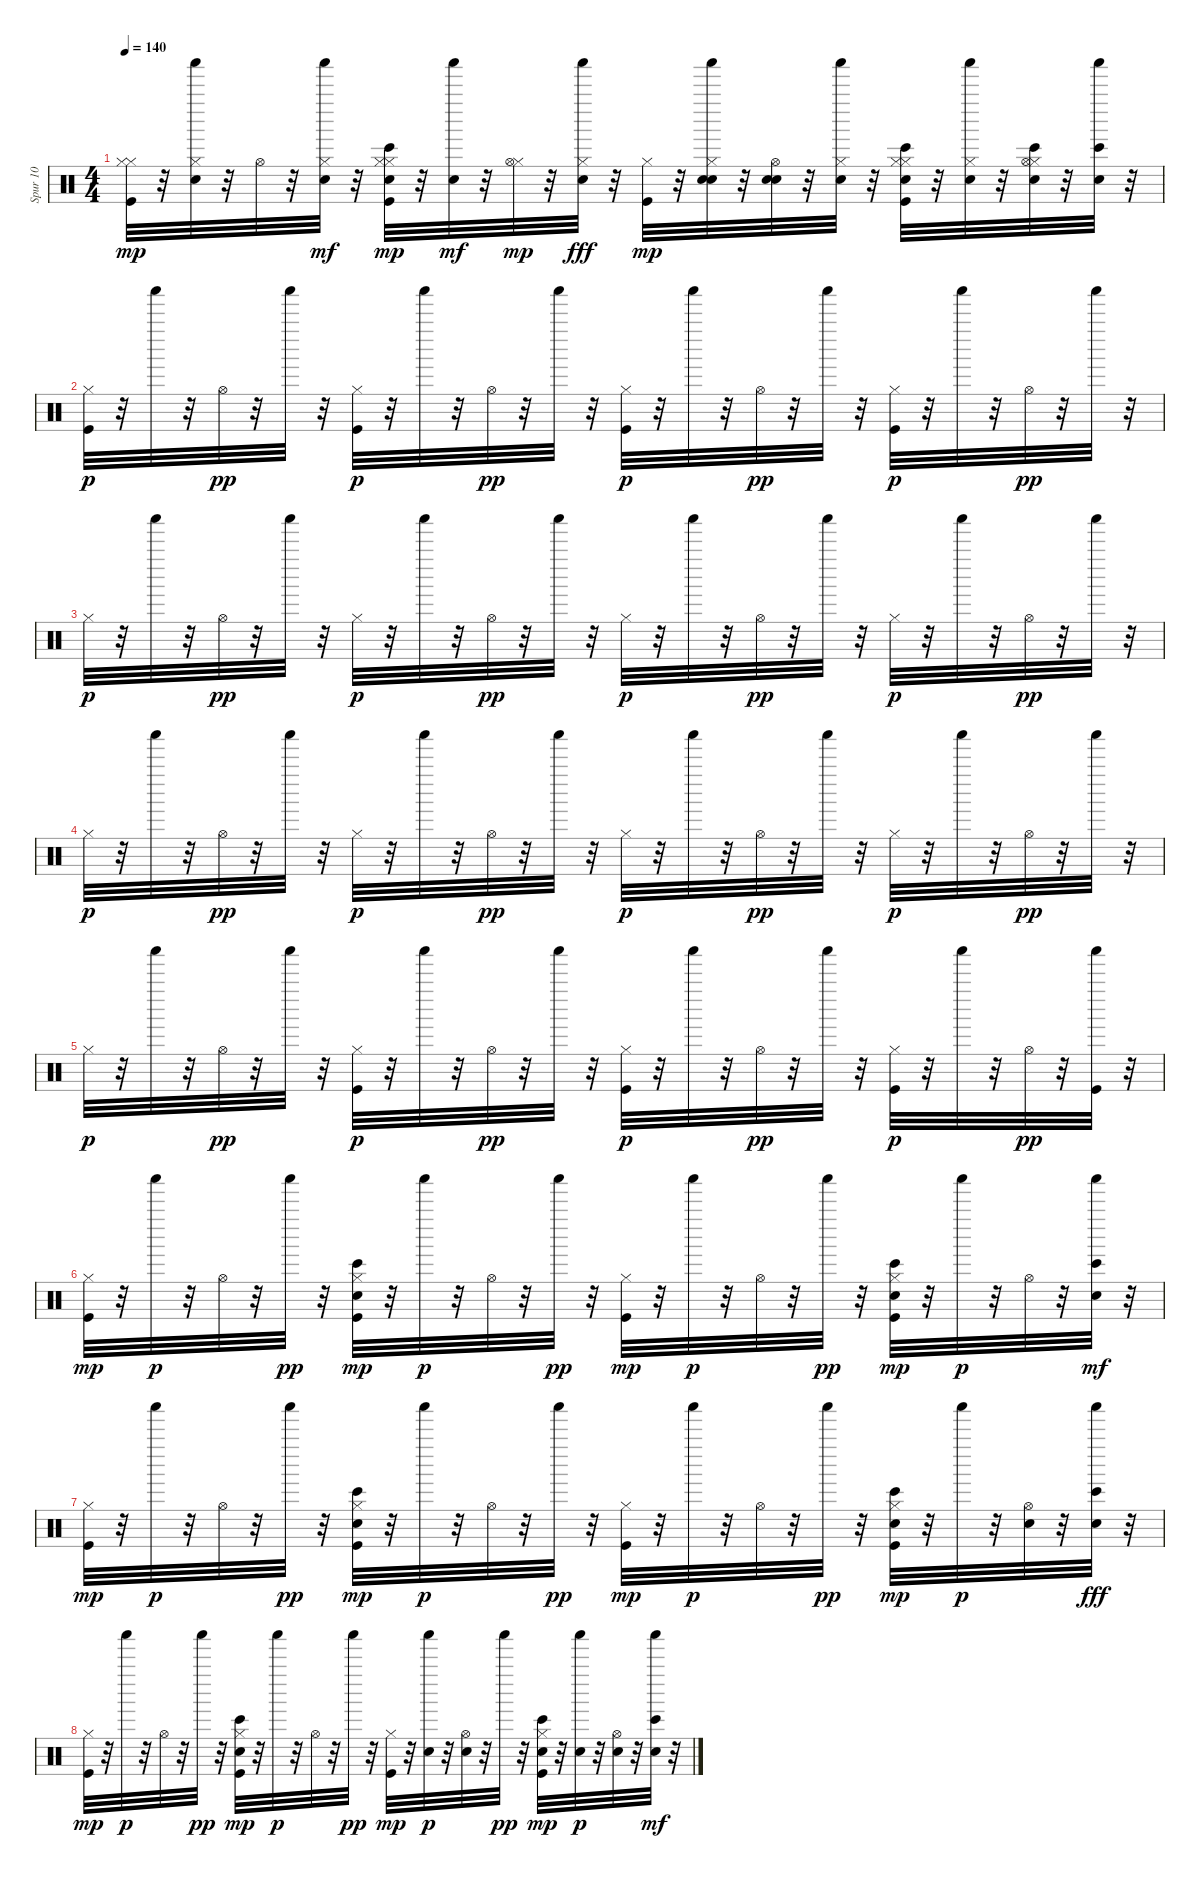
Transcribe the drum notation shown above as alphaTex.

\track ("Spur 10" "Spur 10") {instrument percussion}
\staff {score}
\articulation defaults
\ts (4 4)
\tempo 140
\clef neutral
\ks c
("Hi-Hat (closed)" "Kick (hit)" "Hi-Hat (closed)").32{dy mp} r.32 ("Snare (hit) 2" "Hi-Hat (closed)" "Shaker (hit)").32 r.32 "Hi-Hat (open)".32 r.32 ("Shaker (hit)" "Hi-Hat (closed)" "Snare (hit) 2").32{dy mf} r.32 ("Hi-Hat (closed)" "Kick (hit)" "Bongo High (hit)" "Electric Snare (hit)" "Hi-Hat (closed)").32{dy mp} r.32 ("Shaker (hit)" "Snare (hit) 2").32{dy mf} r.32 ("Hi-Hat (closed)" "Hi-Hat (open)").32{dy mp} r.32 ("Snare (hit) 2" "Shaker (hit)" "Hi-Hat (closed)").32{dy fff} r.32 ("Kick (hit)" "Hi-Hat (closed)").32{dy mp} r.32 ("Electric Snare (hit)" "Snare (hit) 2" "Hi-Hat (closed)" "Shaker (hit)").32 r.32 ("Electric Snare (hit)" "Snare (hit) 2" "Hi-Hat (open)").32 r.32 ("Snare (hit) 2" "Shaker (hit)" "Hi-Hat (closed)").32 r.32 ("Hi-Hat (closed)" "Kick (hit)" "Bongo High (hit)" "Electric Snare (hit)" "Hi-Hat (closed)").32 r.32 ("Snare (hit) 2" "Hi-Hat (closed)" "Shaker (hit)").32 r.32 ("Bongo High (hit)" "Electric Snare (hit)" "Hi-Hat (closed)" "Hi-Hat (open)").32 r.32 ("Bongo High (hit)" "Electric Snare (hit)" "Shaker (hit)").32 r.32 |
("Kick (hit)" "Hi-Hat (closed)").32{dy p} r.32 "Shaker (hit)".32 r.32 "Hi-Hat (open)".32{dy pp} r.32 "Shaker (hit)".32 r.32 ("Kick (hit)" "Hi-Hat (closed)").32{dy p} r.32 "Shaker (hit)".32 r.32 "Hi-Hat (open)".32{dy pp} r.32 "Shaker (hit)".32 r.32 ("Kick (hit)" "Hi-Hat (closed)").32{dy p} r.32 "Shaker (hit)".32 r.32 "Hi-Hat (open)".32{dy pp} r.32 "Shaker (hit)".32 r.32 ("Kick (hit)" "Hi-Hat (closed)").32{dy p} r.32 "Shaker (hit)".32 r.32 "Hi-Hat (open)".32{dy pp} r.32 "Shaker (hit)".32 r.32 |
"Hi-Hat (closed)".32{dy p} r.32 "Shaker (hit)".32 r.32 "Hi-Hat (open)".32{dy pp} r.32 "Shaker (hit)".32 r.32 "Hi-Hat (closed)".32{dy p} r.32 "Shaker (hit)".32 r.32 "Hi-Hat (open)".32{dy pp} r.32 "Shaker (hit)".32 r.32 "Hi-Hat (closed)".32{dy p} r.32 "Shaker (hit)".32 r.32 "Hi-Hat (open)".32{dy pp} r.32 "Shaker (hit)".32 r.32 "Hi-Hat (closed)".32{dy p} r.32 "Shaker (hit)".32 r.32 "Hi-Hat (open)".32{dy pp} r.32 "Shaker (hit)".32 r.32 |
"Hi-Hat (closed)".32{dy p} r.32 "Shaker (hit)".32 r.32 "Hi-Hat (open)".32{dy pp} r.32 "Shaker (hit)".32 r.32 "Hi-Hat (closed)".32{dy p} r.32 "Shaker (hit)".32 r.32 "Hi-Hat (open)".32{dy pp} r.32 "Shaker (hit)".32 r.32 "Hi-Hat (closed)".32{dy p} r.32 "Shaker (hit)".32 r.32 "Hi-Hat (open)".32{dy pp} r.32 "Shaker (hit)".32 r.32 "Hi-Hat (closed)".32{dy p} r.32 "Shaker (hit)".32 r.32 "Hi-Hat (open)".32{dy pp} r.32 "Shaker (hit)".32 r.32 |
"Hi-Hat (closed)".32{dy p} r.32 "Shaker (hit)".32 r.32 "Hi-Hat (open)".32{dy pp} r.32 "Shaker (hit)".32 r.32 ("Kick (hit)" "Hi-Hat (closed)").32{dy p} r.32 "Shaker (hit)".32 r.32 "Hi-Hat (open)".32{dy pp} r.32 "Shaker (hit)".32 r.32 ("Kick (hit)" "Hi-Hat (closed)").32{dy p} r.32 "Shaker (hit)".32 r.32 "Hi-Hat (open)".32{dy pp} r.32 "Shaker (hit)".32 r.32 ("Kick (hit)" "Hi-Hat (closed)").32{dy p} r.32 "Shaker (hit)".32 r.32 "Hi-Hat (open)".32{dy pp} r.32 ("Kick (hit)" "Shaker (hit)").32 r.32 |
("Kick (hit)" "Hi-Hat (closed)").32{dy mp} r.32 "Shaker (hit)".32{dy p} r.32 "Hi-Hat (open)".32 r.32 "Shaker (hit)".32{dy pp} r.32 ("Kick (hit)" "Bongo High (hit)" "Electric Snare (hit)" "Hi-Hat (closed)").32{dy mp} r.32 "Shaker (hit)".32{dy p} r.32 "Hi-Hat (open)".32 r.32 "Shaker (hit)".32{dy pp} r.32 ("Kick (hit)" "Hi-Hat (closed)").32{dy mp} r.32 "Shaker (hit)".32{dy p} r.32 "Hi-Hat (open)".32 r.32 "Shaker (hit)".32{dy pp} r.32 ("Kick (hit)" "Bongo High (hit)" "Electric Snare (hit)" "Hi-Hat (closed)").32{dy mp} r.32 "Shaker (hit)".32{dy p} r.32 "Hi-Hat (open)".32 r.32 ("Shaker (hit)" "Bongo High (hit)" "Electric Snare (hit)").32{dy mf} r.32 |
("Kick (hit)" "Hi-Hat (closed)").32{dy mp} r.32 "Shaker (hit)".32{dy p} r.32 "Hi-Hat (open)".32 r.32 "Shaker (hit)".32{dy pp} r.32 ("Kick (hit)" "Bongo High (hit)" "Electric Snare (hit)" "Hi-Hat (closed)").32{dy mp} r.32 "Shaker (hit)".32{dy p} r.32 "Hi-Hat (open)".32 r.32 "Shaker (hit)".32{dy pp} r.32 ("Kick (hit)" "Hi-Hat (closed)").32{dy mp} r.32 "Shaker (hit)".32{dy p} r.32 "Hi-Hat (open)".32 r.32 "Shaker (hit)".32{dy pp} r.32 ("Kick (hit)" "Bongo High (hit)" "Electric Snare (hit)" "Hi-Hat (closed)").32{dy mp} r.32 "Shaker (hit)".32{dy p} r.32 ("Electric Snare (hit)" "Hi-Hat (open)").32 r.32 ("Shaker (hit)" "Bongo High (hit)" "Electric Snare (hit)").32{dy fff} r.32 |
("Kick (hit)" "Hi-Hat (closed)").32{dy mp} r.32 "Shaker (hit)".32{dy p} r.32 "Hi-Hat (open)".32 r.32 "Shaker (hit)".32{dy pp} r.32 ("Kick (hit)" "Bongo High (hit)" "Electric Snare (hit)" "Hi-Hat (closed)").32{dy mp} r.32 "Shaker (hit)".32{dy p} r.32 "Hi-Hat (open)".32 r.32 "Shaker (hit)".32{dy pp} r.32 ("Kick (hit)" "Hi-Hat (closed)").32{dy mp} r.32 ("Electric Snare (hit)" "Shaker (hit)").32{dy p} r.32 ("Snare (hit) 2" "Hi-Hat (open)").32 r.32 "Shaker (hit)".32{dy pp} r.32 ("Electric Snare (hit)" "Kick (hit)" "Bongo High (hit)" "Hi-Hat (closed)").32{dy mp} r.32 ("Snare (hit) 2" "Shaker (hit)").32{dy p} r.32 ("Snare (hit) 2" "Hi-Hat (open)").32 r.32 ("Shaker (hit)" "Electric Snare (hit)" "Bongo High (hit)").32{dy mf} r.32
